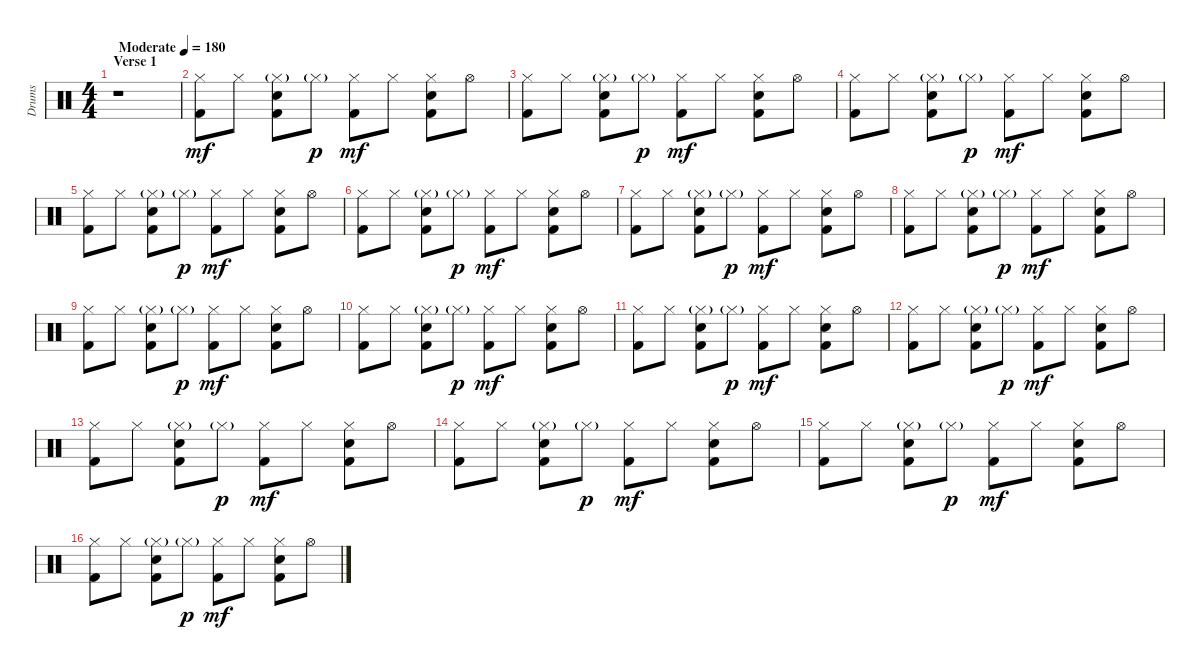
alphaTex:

\track ("Drums" "Drums") {instrument percussion}
\staff {score}
\articulation defaults
\ts (4 4)
\section ("" "Verse 1")
\tempo (180 "Moderate")
\clef neutral
\ks c
r.1{dy mf} |
("Hi-Hat (closed)" "Kick (hit) 2").8 "Hi-Hat (closed)".8 ("Hi-Hat (closed)"{g} "Electric Snare (hit)" "Kick (hit) 2").8 "Hi-Hat (closed)"{g}.8{dy p} ("Hi-Hat (closed)" "Kick (hit) 2").8{dy mf} "Hi-Hat (closed)".8 ("Hi-Hat (closed)" "Electric Snare (hit)" "Kick (hit) 2").8 "Hi-Hat (open)".8 |
("Hi-Hat (closed)" "Kick (hit) 2").8 "Hi-Hat (closed)".8 ("Hi-Hat (closed)"{g} "Electric Snare (hit)" "Kick (hit) 2").8 "Hi-Hat (closed)"{g}.8{dy p} ("Hi-Hat (closed)" "Kick (hit) 2").8{dy mf} "Hi-Hat (closed)".8 ("Hi-Hat (closed)" "Electric Snare (hit)" "Kick (hit) 2").8 "Hi-Hat (open)".8 |
("Hi-Hat (closed)" "Kick (hit) 2").8 "Hi-Hat (closed)".8 ("Hi-Hat (closed)"{g} "Electric Snare (hit)" "Kick (hit) 2").8 "Hi-Hat (closed)"{g}.8{dy p} ("Hi-Hat (closed)" "Kick (hit) 2").8{dy mf} "Hi-Hat (closed)".8 ("Hi-Hat (closed)" "Electric Snare (hit)" "Kick (hit) 2").8 "Hi-Hat (open)".8 |
("Hi-Hat (closed)" "Kick (hit) 2").8 "Hi-Hat (closed)".8 ("Hi-Hat (closed)"{g} "Electric Snare (hit)" "Kick (hit) 2").8 "Hi-Hat (closed)"{g}.8{dy p} ("Hi-Hat (closed)" "Kick (hit) 2").8{dy mf} "Hi-Hat (closed)".8 ("Hi-Hat (closed)" "Electric Snare (hit)" "Kick (hit) 2").8 "Hi-Hat (open)".8 |
("Hi-Hat (closed)" "Kick (hit) 2").8 "Hi-Hat (closed)".8 ("Hi-Hat (closed)"{g} "Electric Snare (hit)" "Kick (hit) 2").8 "Hi-Hat (closed)"{g}.8{dy p} ("Hi-Hat (closed)" "Kick (hit) 2").8{dy mf} "Hi-Hat (closed)".8 ("Hi-Hat (closed)" "Electric Snare (hit)" "Kick (hit) 2").8 "Hi-Hat (open)".8 |
("Hi-Hat (closed)" "Kick (hit) 2").8 "Hi-Hat (closed)".8 ("Hi-Hat (closed)"{g} "Electric Snare (hit)" "Kick (hit) 2").8 "Hi-Hat (closed)"{g}.8{dy p} ("Hi-Hat (closed)" "Kick (hit) 2").8{dy mf} "Hi-Hat (closed)".8 ("Hi-Hat (closed)" "Electric Snare (hit)" "Kick (hit) 2").8 "Hi-Hat (open)".8 |
("Hi-Hat (closed)" "Kick (hit) 2").8 "Hi-Hat (closed)".8 ("Hi-Hat (closed)"{g} "Electric Snare (hit)" "Kick (hit) 2").8 "Hi-Hat (closed)"{g}.8{dy p} ("Hi-Hat (closed)" "Kick (hit) 2").8{dy mf} "Hi-Hat (closed)".8 ("Hi-Hat (closed)" "Electric Snare (hit)" "Kick (hit) 2").8 "Hi-Hat (open)".8 |
("Hi-Hat (closed)" "Kick (hit) 2").8 "Hi-Hat (closed)".8 ("Hi-Hat (closed)"{g} "Electric Snare (hit)" "Kick (hit) 2").8 "Hi-Hat (closed)"{g}.8{dy p} ("Hi-Hat (closed)" "Kick (hit) 2").8{dy mf} "Hi-Hat (closed)".8 ("Hi-Hat (closed)" "Electric Snare (hit)" "Kick (hit) 2").8 "Hi-Hat (open)".8 |
("Hi-Hat (closed)" "Kick (hit) 2").8 "Hi-Hat (closed)".8 ("Hi-Hat (closed)"{g} "Electric Snare (hit)" "Kick (hit) 2").8 "Hi-Hat (closed)"{g}.8{dy p} ("Hi-Hat (closed)" "Kick (hit) 2").8{dy mf} "Hi-Hat (closed)".8 ("Hi-Hat (closed)" "Electric Snare (hit)" "Kick (hit) 2").8 "Hi-Hat (open)".8 |
("Hi-Hat (closed)" "Kick (hit) 2").8 "Hi-Hat (closed)".8 ("Hi-Hat (closed)"{g} "Electric Snare (hit)" "Kick (hit) 2").8 "Hi-Hat (closed)"{g}.8{dy p} ("Hi-Hat (closed)" "Kick (hit) 2").8{dy mf} "Hi-Hat (closed)".8 ("Hi-Hat (closed)" "Electric Snare (hit)" "Kick (hit) 2").8 "Hi-Hat (open)".8 |
("Hi-Hat (closed)" "Kick (hit) 2").8 "Hi-Hat (closed)".8 ("Hi-Hat (closed)"{g} "Electric Snare (hit)" "Kick (hit) 2").8 "Hi-Hat (closed)"{g}.8{dy p} ("Hi-Hat (closed)" "Kick (hit) 2").8{dy mf} "Hi-Hat (closed)".8 ("Hi-Hat (closed)" "Electric Snare (hit)" "Kick (hit) 2").8 "Hi-Hat (open)".8 |
("Hi-Hat (closed)" "Kick (hit) 2").8 "Hi-Hat (closed)".8 ("Hi-Hat (closed)"{g} "Electric Snare (hit)" "Kick (hit) 2").8 "Hi-Hat (closed)"{g}.8{dy p} ("Hi-Hat (closed)" "Kick (hit) 2").8{dy mf} "Hi-Hat (closed)".8 ("Hi-Hat (closed)" "Electric Snare (hit)" "Kick (hit) 2").8 "Hi-Hat (open)".8 |
("Hi-Hat (closed)" "Kick (hit) 2").8 "Hi-Hat (closed)".8 ("Hi-Hat (closed)"{g} "Electric Snare (hit)" "Kick (hit) 2").8 "Hi-Hat (closed)"{g}.8{dy p} ("Hi-Hat (closed)" "Kick (hit) 2").8{dy mf} "Hi-Hat (closed)".8 ("Hi-Hat (closed)" "Electric Snare (hit)" "Kick (hit) 2").8 "Hi-Hat (open)".8 |
("Hi-Hat (closed)" "Kick (hit) 2").8 "Hi-Hat (closed)".8 ("Hi-Hat (closed)"{g} "Electric Snare (hit)" "Kick (hit) 2").8 "Hi-Hat (closed)"{g}.8{dy p} ("Hi-Hat (closed)" "Kick (hit) 2").8{dy mf} "Hi-Hat (closed)".8 ("Hi-Hat (closed)" "Electric Snare (hit)" "Kick (hit) 2").8 "Hi-Hat (open)".8 |
("Hi-Hat (closed)" "Kick (hit) 2").8 "Hi-Hat (closed)".8 ("Hi-Hat (closed)"{g} "Electric Snare (hit)" "Kick (hit) 2").8 "Hi-Hat (closed)"{g}.8{dy p} ("Hi-Hat (closed)" "Kick (hit) 2").8{dy mf} "Hi-Hat (closed)".8 ("Hi-Hat (closed)" "Electric Snare (hit)" "Kick (hit) 2").8 "Hi-Hat (open)".8
